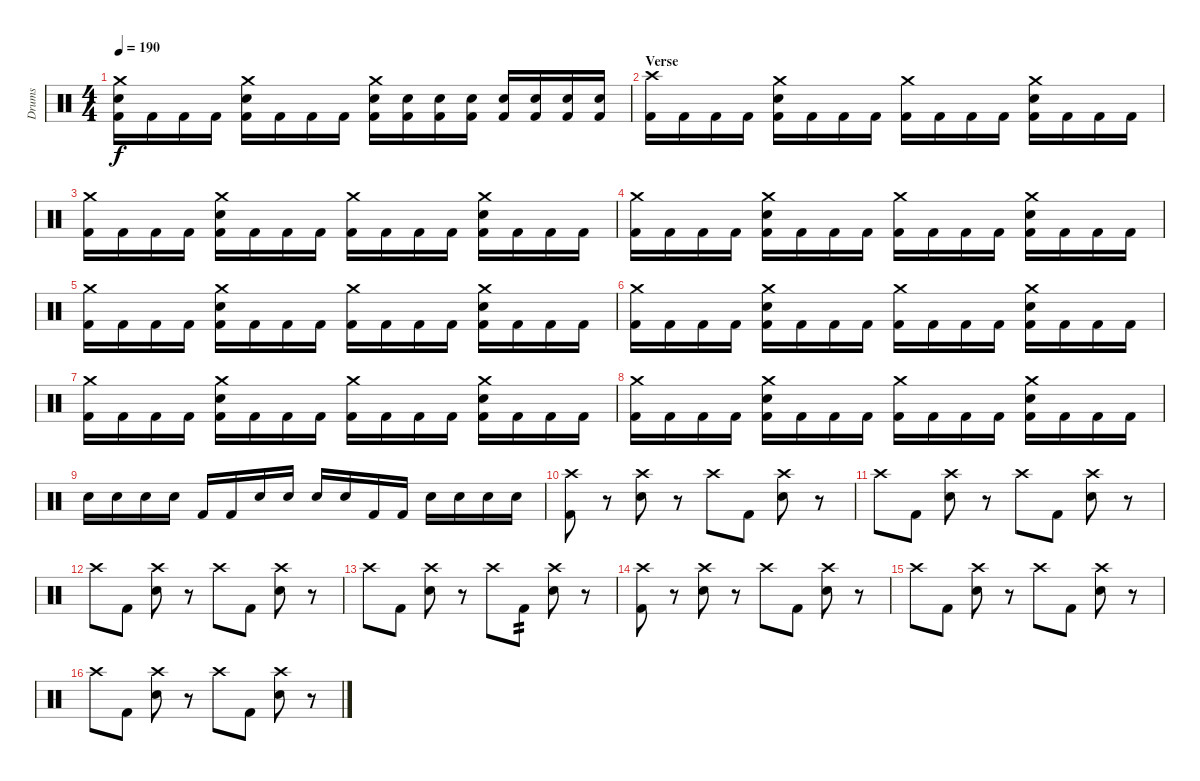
\track ("Drums" "Drums") {instrument percussion}
\staff {score}
\articulation defaults
\ts (4 4)
\tempo 190
\clef neutral
\ks c
("Crash medium (hit)" "Electric Snare (hit)" "Kick (hit) 2").16{dy f} "Kick (hit) 2".16 "Kick (hit) 2".16 "Kick (hit) 2".16 ("Crash medium (hit)" "Electric Snare (hit)" "Kick (hit) 2").16 "Kick (hit) 2".16 "Kick (hit) 2".16 "Kick (hit) 2".16 ("Crash medium (hit)" "Electric Snare (hit)" "Kick (hit) 2").16 ("Electric Snare (hit)" "Kick (hit) 2").16 ("Electric Snare (hit)" "Kick (hit) 2").16 ("Electric Snare (hit)" "Kick (hit) 2").16 ("Electric Snare (hit)" "Kick (hit) 2").16 ("Electric Snare (hit)" "Kick (hit) 2").16 ("Electric Snare (hit)" "Kick (hit) 2").16 ("Electric Snare (hit)" "Kick (hit) 2").16 |
\section ("" "Verse")
("Crash high (hit)" "Kick (hit) 2").16 "Kick (hit) 2".16 "Kick (hit) 2".16 "Kick (hit) 2".16 ("Crash medium (hit)" "Electric Snare (hit)" "Kick (hit) 2").16 "Kick (hit) 2".16 "Kick (hit) 2".16 "Kick (hit) 2".16 ("Crash medium (hit)" "Kick (hit) 2").16 "Kick (hit) 2".16 "Kick (hit) 2".16 "Kick (hit) 2".16 ("Crash medium (hit)" "Electric Snare (hit)" "Kick (hit) 2").16 "Kick (hit) 2".16 "Kick (hit) 2".16 "Kick (hit) 2".16 |
("Crash medium (hit)" "Kick (hit) 2").16 "Kick (hit) 2".16 "Kick (hit) 2".16 "Kick (hit) 2".16 ("Crash medium (hit)" "Electric Snare (hit)" "Kick (hit) 2").16 "Kick (hit) 2".16 "Kick (hit) 2".16 "Kick (hit) 2".16 ("Crash medium (hit)" "Kick (hit) 2").16 "Kick (hit) 2".16 "Kick (hit) 2".16 "Kick (hit) 2".16 ("Crash medium (hit)" "Electric Snare (hit)" "Kick (hit) 2").16 "Kick (hit) 2".16 "Kick (hit) 2".16 "Kick (hit) 2".16 |
("Crash medium (hit)" "Kick (hit) 2").16 "Kick (hit) 2".16 "Kick (hit) 2".16 "Kick (hit) 2".16 ("Crash medium (hit)" "Electric Snare (hit)" "Kick (hit) 2").16 "Kick (hit) 2".16 "Kick (hit) 2".16 "Kick (hit) 2".16 ("Crash medium (hit)" "Kick (hit) 2").16 "Kick (hit) 2".16 "Kick (hit) 2".16 "Kick (hit) 2".16 ("Crash medium (hit)" "Electric Snare (hit)" "Kick (hit) 2").16 "Kick (hit) 2".16 "Kick (hit) 2".16 "Kick (hit) 2".16 |
("Crash medium (hit)" "Kick (hit) 2").16 "Kick (hit) 2".16 "Kick (hit) 2".16 "Kick (hit) 2".16 ("Crash medium (hit)" "Electric Snare (hit)" "Kick (hit) 2").16 "Kick (hit) 2".16 "Kick (hit) 2".16 "Kick (hit) 2".16 ("Crash medium (hit)" "Kick (hit) 2").16 "Kick (hit) 2".16 "Kick (hit) 2".16 "Kick (hit) 2".16 ("Crash medium (hit)" "Electric Snare (hit)" "Kick (hit) 2").16 "Kick (hit) 2".16 "Kick (hit) 2".16 "Kick (hit) 2".16 |
("Crash medium (hit)" "Kick (hit) 2").16 "Kick (hit) 2".16 "Kick (hit) 2".16 "Kick (hit) 2".16 ("Crash medium (hit)" "Electric Snare (hit)" "Kick (hit) 2").16 "Kick (hit) 2".16 "Kick (hit) 2".16 "Kick (hit) 2".16 ("Crash medium (hit)" "Kick (hit) 2").16 "Kick (hit) 2".16 "Kick (hit) 2".16 "Kick (hit) 2".16 ("Crash medium (hit)" "Electric Snare (hit)" "Kick (hit) 2").16 "Kick (hit) 2".16 "Kick (hit) 2".16 "Kick (hit) 2".16 |
("Crash medium (hit)" "Kick (hit) 2").16 "Kick (hit) 2".16 "Kick (hit) 2".16 "Kick (hit) 2".16 ("Crash medium (hit)" "Electric Snare (hit)" "Kick (hit) 2").16 "Kick (hit) 2".16 "Kick (hit) 2".16 "Kick (hit) 2".16 ("Crash medium (hit)" "Kick (hit) 2").16 "Kick (hit) 2".16 "Kick (hit) 2".16 "Kick (hit) 2".16 ("Crash medium (hit)" "Electric Snare (hit)" "Kick (hit) 2").16 "Kick (hit) 2".16 "Kick (hit) 2".16 "Kick (hit) 2".16 |
("Crash medium (hit)" "Kick (hit) 2").16 "Kick (hit) 2".16 "Kick (hit) 2".16 "Kick (hit) 2".16 ("Crash medium (hit)" "Electric Snare (hit)" "Kick (hit) 2").16 "Kick (hit) 2".16 "Kick (hit) 2".16 "Kick (hit) 2".16 ("Crash medium (hit)" "Kick (hit) 2").16 "Kick (hit) 2".16 "Kick (hit) 2".16 "Kick (hit) 2".16 ("Crash medium (hit)" "Electric Snare (hit)" "Kick (hit) 2").16 "Kick (hit) 2".16 "Kick (hit) 2".16 "Kick (hit) 2".16 |
"Electric Snare (hit)".16 "Electric Snare (hit)".16 "Electric Snare (hit)".16 "Electric Snare (hit)".16 "Kick (hit) 2".16 "Kick (hit) 2".16 "Electric Snare (hit)".16 "Electric Snare (hit)".16 "Electric Snare (hit)".16 "Electric Snare (hit)".16 "Kick (hit) 2".16 "Kick (hit) 2".16 "Electric Snare (hit)".16 "Electric Snare (hit)".16 "Electric Snare (hit)".16 "Electric Snare (hit)".16 |
("Crash high (hit)" "Kick (hit) 2").8 r.8 ("Crash high (hit)" "Electric Snare (hit)").8 r.8 "Crash high (hit)".8 "Kick (hit) 2".8 ("Crash high (hit)" "Electric Snare (hit)").8 r.8 |
"Crash high (hit)".8 "Kick (hit) 2".8 ("Crash high (hit)" "Electric Snare (hit)").8 r.8 "Crash high (hit)".8 "Kick (hit) 2".8 ("Crash high (hit)" "Electric Snare (hit)").8 r.8 |
"Crash high (hit)".8 "Kick (hit) 2".8 ("Crash high (hit)" "Electric Snare (hit)").8 r.8 "Crash high (hit)".8 "Kick (hit) 2".8 ("Crash high (hit)" "Electric Snare (hit)").8 r.8 |
"Crash high (hit)".8 "Kick (hit) 2".8 ("Crash high (hit)" "Electric Snare (hit)").8 r.8 "Crash high (hit)".8 "Kick (hit) 2".8{tp 2} ("Crash high (hit)" "Electric Snare (hit)").8 r.8 |
("Crash high (hit)" "Kick (hit) 2").8 r.8 ("Crash high (hit)" "Electric Snare (hit)").8 r.8 "Crash high (hit)".8 "Kick (hit) 2".8 ("Crash high (hit)" "Electric Snare (hit)").8 r.8 |
"Crash high (hit)".8 "Kick (hit) 2".8 ("Crash high (hit)" "Electric Snare (hit)").8 r.8 "Crash high (hit)".8 "Kick (hit) 2".8 ("Crash high (hit)" "Electric Snare (hit)").8 r.8 |
"Crash high (hit)".8 "Kick (hit) 2".8 ("Crash high (hit)" "Electric Snare (hit)").8 r.8 "Crash high (hit)".8 "Kick (hit) 2".8 ("Crash high (hit)" "Electric Snare (hit)").8 r.8
